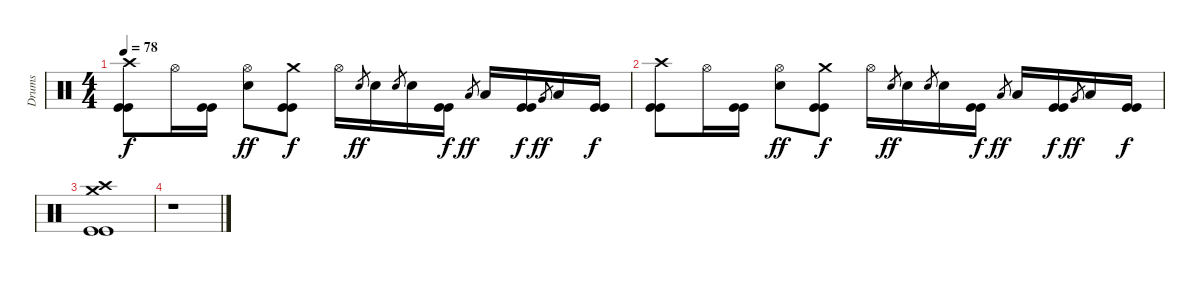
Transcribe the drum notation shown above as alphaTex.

\track ("Drums" "Drums") {instrument percussion}
\staff {score}
\articulation defaults
\ts (4 4)
\tempo 78
\clef neutral
\ks c
("Crash high (hit)" "Kick (hit)" "Kick (hit)").8{dy f} "Hi-Hat (open)".16 ("Kick (hit)" "Kick (hit)").16 ("Hi-Hat (open)" "Electric Snare (hit)").8{dy ff} ("Crash medium (hit)" "Kick (hit)" "Kick (hit)").8{dy f} "Hi-Hat (open)".16 "Electric Snare (hit)".8{gr dy ff} "Electric Snare (hit)".16 "Electric Snare (hit)".8{gr} "Electric Snare (hit)".16 ("Kick (hit)" "Kick (hit)").16{dy f} "Low Tom (hit)".8{gr dy ff} "Low Tom (hit)".16 ("Kick (hit)" "Kick (hit)").16{dy f} "Very Low Tom (hit)".8{gr dy ff} "Low Floor Tom (hit)".16 ("Kick (hit)" "Kick (hit)").16{dy f} |
("Crash high (hit)" "Kick (hit)" "Kick (hit)").8 "Hi-Hat (open)".16 ("Kick (hit)" "Kick (hit)").16 ("Hi-Hat (open)" "Electric Snare (hit)").8{dy ff} ("Crash medium (hit)" "Kick (hit)" "Kick (hit)").8{dy f} "Hi-Hat (open)".16 "Electric Snare (hit)".8{gr dy ff} "Electric Snare (hit)".16 "Electric Snare (hit)".8{gr} "Electric Snare (hit)".16 ("Kick (hit)" "Kick (hit)").16{dy f} "Low Tom (hit)".8{gr dy ff} "Low Tom (hit)".16 ("Kick (hit)" "Kick (hit)").16{dy f} "Very Low Tom (hit)".8{gr dy ff} "Low Floor Tom (hit)".16 ("Kick (hit)" "Kick (hit)").16{dy f} |
("Crash high (hit)" "Crash medium (hit)" "Kick (hit)" "Kick (hit)").1 |
r.1
